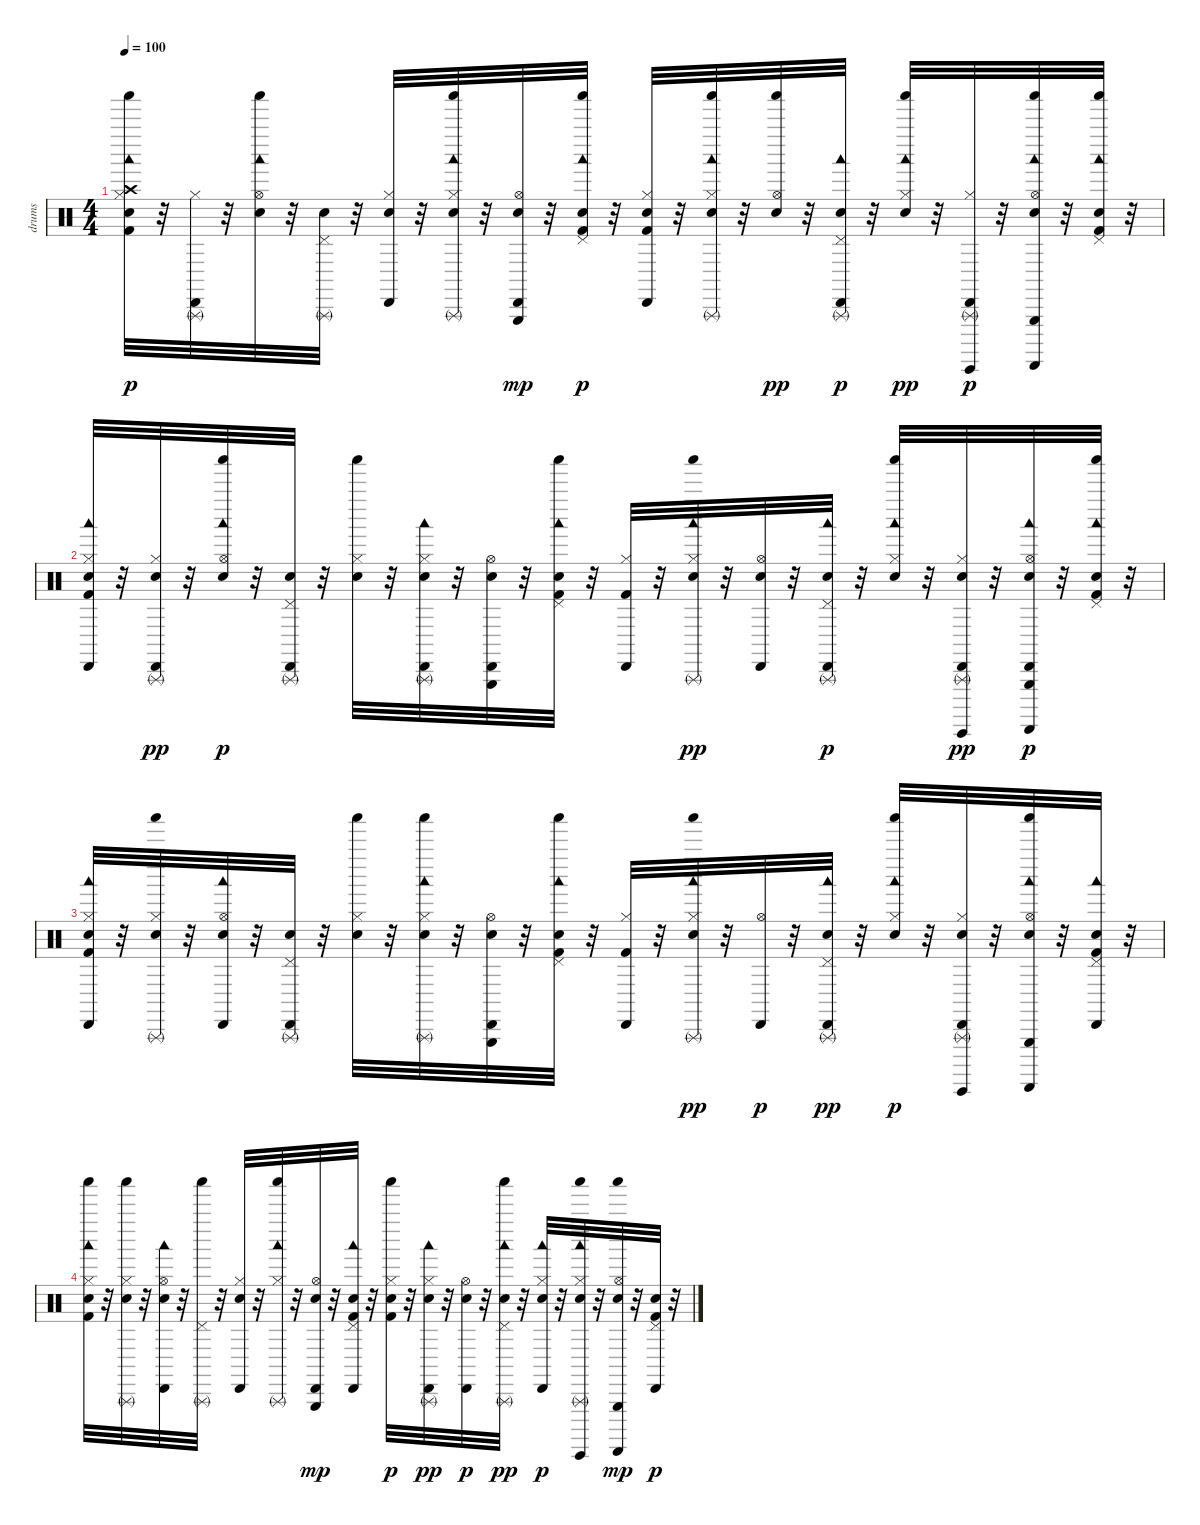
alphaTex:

\track ("drums" "drums") {instrument percussion}
\staff {score}
\articulation defaults
\ts (4 4)
\tempo 100
\clef neutral
\ks c
("Crash high (hit)" "Kick (hit) 2" "Snare (hit) 2" "Hi-Hat (closed)" "Woodblock low (hit)" "Shaker (hit)").32{dy p} r.32 ("Hi-Hat (closed)" "Cabasa (hit)" "Triangle (rnute)").32 r.32 ("Snare (hit) 2" "Hi-Hat (open)" "Woodblock low (hit)" "Shaker (hit)").32 r.32 ("Snare (hit) 2" "Pedal Hi-Hat (hit)" "Triangle (rnute)").32 r.32 ("Snare (hit) 2" "Hi-Hat (closed)" "Cabasa (hit)").32 r.32 ("Snare (hit) 2" "Hi-Hat (closed)" "Woodblock low (hit)" "Shaker (hit)" "Triangle (rnute)").32 r.32 ("Snare (hit) 2" "Hi-Hat (open)" "Cabasa (hit)" "Triangle (hit)").32{dy mp} r.32 ("Kick (hit) 2" "Snare (hit) 2" "Pedal Hi-Hat (hit)" "Woodblock low (hit)" "Shaker (hit)").32{dy p} r.32 ("Kick (hit) 2" "Snare (hit) 2" "Hi-Hat (closed)" "Cabasa (hit)").32 r.32 ("Snare (hit) 2" "Hi-Hat (closed)" "Woodblock low (hit)" "Shaker (hit)" "Triangle (rnute)").32 r.32 ("Snare (hit) 2" "Hi-Hat (open)" "Shaker (hit)").32{dy pp} r.32 ("Snare (hit) 2" "Pedal Hi-Hat (hit)" "Woodblock low (hit)" "Cabasa (hit)" "Triangle (rnute)").32{dy p} r.32 ("Snare (hit) 2" "Hi-Hat (closed)" "Woodblock low (hit)" "Shaker (hit)").32{dy pp} r.32 ("Hi-Hat (closed)" "Cabasa (hit)" "Triangle (rnute)" "Guiro (hit)").32{dy p} r.32 ("Snare (hit) 2" "Hi-Hat (open)" "Woodblock low (hit)" "Shaker (hit)" "Guiro (scrap-return)" "Triangle (hit)").32 r.32 ("Kick (hit) 2" "Snare (hit) 2" "Pedal Hi-Hat (hit)" "Woodblock low (hit)" "Shaker (hit)").32 r.32 |
("Kick (hit) 2" "Snare (hit) 2" "Hi-Hat (closed)" "Woodblock low (hit)" "Cabasa (hit)").32 r.32 ("Snare (hit) 2" "Hi-Hat (closed)" "Cabasa (hit)" "Triangle (rnute)").32{dy pp} r.32 ("Snare (hit) 2" "Hi-Hat (open)" "Woodblock low (hit)" "Shaker (hit)").32{dy p} r.32 ("Snare (hit) 2" "Pedal Hi-Hat (hit)" "Cabasa (hit)" "Triangle (rnute)").32 r.32 ("Snare (hit) 2" "Hi-Hat (closed)" "Shaker (hit)").32 r.32 ("Snare (hit) 2" "Hi-Hat (closed)" "Woodblock low (hit)" "Cabasa (hit)" "Triangle (rnute)").32 r.32 ("Snare (hit) 2" "Hi-Hat (open)" "Cabasa (hit)" "Triangle (hit)").32 r.32 ("Kick (hit) 2" "Snare (hit) 2" "Pedal Hi-Hat (hit)" "Woodblock low (hit)" "Shaker (hit)").32 r.32 ("Kick (hit) 2" "Hi-Hat (closed)" "Cabasa (hit)").32 r.32 ("Snare (hit) 2" "Hi-Hat (closed)" "Woodblock low (hit)" "Shaker (hit)" "Triangle (rnute)").32{dy pp} r.32 ("Snare (hit) 2" "Hi-Hat (open)" "Cabasa (hit)").32 r.32 ("Snare (hit) 2" "Pedal Hi-Hat (hit)" "Woodblock low (hit)" "Cabasa (hit)" "Triangle (rnute)").32{dy p} r.32 ("Snare (hit) 2" "Hi-Hat (closed)" "Woodblock low (hit)" "Shaker (hit)").32 r.32 ("Snare (hit) 2" "Hi-Hat (closed)" "Cabasa (hit)" "Guiro (hit)" "Triangle (rnute)").32{dy pp} r.32 ("Snare (hit) 2" "Hi-Hat (open)" "Woodblock low (hit)" "Cabasa (hit)" "Guiro (scrap-return)" "Triangle (hit)").32{dy p} r.32 ("Kick (hit) 2" "Snare (hit) 2" "Pedal Hi-Hat (hit)" "Woodblock low (hit)" "Shaker (hit)").32 r.32 |
("Kick (hit) 2" "Snare (hit) 2" "Hi-Hat (closed)" "Woodblock low (hit)" "Cabasa (hit)").32 r.32 ("Snare (hit) 2" "Hi-Hat (closed)" "Shaker (hit)" "Triangle (rnute)").32 r.32 ("Snare (hit) 2" "Hi-Hat (open)" "Woodblock low (hit)" "Cabasa (hit)").32 r.32 ("Snare (hit) 2" "Pedal Hi-Hat (hit)" "Cabasa (hit)" "Triangle (rnute)").32 r.32 ("Snare (hit) 2" "Hi-Hat (closed)" "Shaker (hit)").32 r.32 ("Snare (hit) 2" "Hi-Hat (closed)" "Woodblock low (hit)" "Shaker (hit)" "Triangle (rnute)").32 r.32 ("Snare (hit) 2" "Hi-Hat (open)" "Cabasa (hit)" "Triangle (hit)").32 r.32 ("Kick (hit) 2" "Snare (hit) 2" "Pedal Hi-Hat (hit)" "Woodblock low (hit)" "Shaker (hit)").32 r.32 ("Kick (hit) 2" "Hi-Hat (closed)" "Cabasa (hit)").32 r.32 ("Snare (hit) 2" "Hi-Hat (closed)" "Woodblock low (hit)" "Shaker (hit)" "Triangle (rnute)").32{dy pp} r.32 ("Hi-Hat (open)" "Cabasa (hit)").32{dy p} r.32 ("Snare (hit) 2" "Pedal Hi-Hat (hit)" "Woodblock low (hit)" "Cabasa (hit)" "Triangle (rnute)").32{dy pp} r.32 ("Snare (hit) 2" "Hi-Hat (closed)" "Woodblock low (hit)" "Shaker (hit)").32{dy p} r.32 ("Snare (hit) 2" "Hi-Hat (closed)" "Cabasa (hit)" "Triangle (rnute)" "Guiro (hit)").32 r.32 ("Snare (hit) 2" "Hi-Hat (open)" "Woodblock low (hit)" "Shaker (hit)" "Guiro (scrap-return)" "Triangle (hit)").32 r.32 ("Kick (hit) 2" "Snare (hit) 2" "Pedal Hi-Hat (hit)" "Woodblock low (hit)" "Cabasa (hit)").32 r.32 |
("Kick (hit) 2" "Snare (hit) 2" "Hi-Hat (closed)" "Woodblock low (hit)" "Shaker (hit)").32 r.32 ("Snare (hit) 2" "Hi-Hat (closed)" "Shaker (hit)" "Triangle (rnute)").32 r.32 ("Snare (hit) 2" "Hi-Hat (open)" "Woodblock low (hit)" "Cabasa (hit)").32 r.32 ("Pedal Hi-Hat (hit)" "Shaker (hit)" "Triangle (rnute)").32 r.32 ("Snare (hit) 2" "Hi-Hat (closed)" "Cabasa (hit)").32 r.32 ("Hi-Hat (closed)" "Woodblock low (hit)" "Shaker (hit)" "Triangle (rnute)").32 r.32 ("Snare (hit) 2" "Hi-Hat (open)" "Cabasa (hit)" "Triangle (hit)").32{dy mp} r.32 ("Kick (hit) 2" "Snare (hit) 2" "Pedal Hi-Hat (hit)" "Woodblock low (hit)" "Cabasa (hit)").32 r.32 ("Kick (hit) 2" "Snare (hit) 2" "Hi-Hat (closed)" "Shaker (hit)").32{dy p} r.32 ("Snare (hit) 2" "Hi-Hat (closed)" "Woodblock low (hit)" "Cabasa (hit)" "Triangle (rnute)").32{dy pp} r.32 ("Snare (hit) 2" "Hi-Hat (open)" "Cabasa (hit)").32{dy p} r.32 ("Snare (hit) 2" "Pedal Hi-Hat (hit)" "Woodblock low (hit)" "Shaker (hit)" "Triangle (rnute)").32{dy pp} r.32 ("Snare (hit) 2" "Hi-Hat (closed)" "Woodblock low (hit)" "Cabasa (hit)").32{dy p} r.32 ("Snare (hit) 2" "Hi-Hat (closed)" "Woodblock low (hit)" "Shaker (hit)" "Triangle (rnute)" "Guiro (hit)").32 r.32 ("Snare (hit) 2" "Hi-Hat (open)" "Shaker (hit)" "Triangle (hit)" "Guiro (scrap-return)").32{dy mp} r.32 ("Kick (hit) 2" "Snare (hit) 2" "Pedal Hi-Hat (hit)" "Cabasa (hit)").32{dy p} r.32
